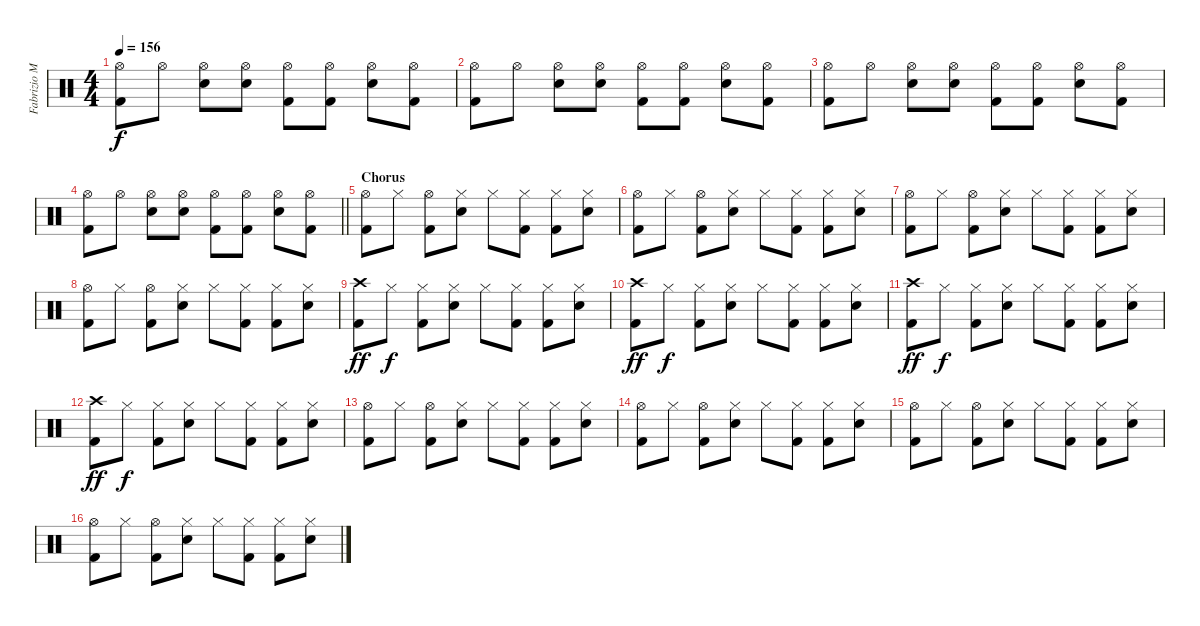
\track ("Fabrizio Moretti" "Fabrizio M") {instrument percussion}
\staff {score}
\articulation defaults
\ts (4 4)
\tempo 156
\clef neutral
\ks c
("Hi-Hat (open)" "Kick (hit) 2").8{dy f} "Hi-Hat (open)".8 ("Hi-Hat (open)" "Snare (hit) 2").8 ("Hi-Hat (open)" "Snare (hit) 2").8 ("Hi-Hat (open)" "Kick (hit) 2").8 ("Hi-Hat (open)" "Kick (hit) 2").8 ("Hi-Hat (open)" "Snare (hit) 2").8 ("Hi-Hat (open)" "Kick (hit) 2").8 |
("Hi-Hat (open)" "Kick (hit) 2").8 "Hi-Hat (open)".8 ("Hi-Hat (open)" "Snare (hit) 2").8 ("Hi-Hat (open)" "Snare (hit) 2").8 ("Hi-Hat (open)" "Kick (hit) 2").8 ("Hi-Hat (open)" "Kick (hit) 2").8 ("Hi-Hat (open)" "Snare (hit) 2").8 ("Hi-Hat (open)" "Kick (hit) 2").8 |
("Hi-Hat (open)" "Kick (hit) 2").8 "Hi-Hat (open)".8 ("Hi-Hat (open)" "Snare (hit) 2").8 ("Hi-Hat (open)" "Snare (hit) 2").8 ("Hi-Hat (open)" "Kick (hit) 2").8 ("Hi-Hat (open)" "Kick (hit) 2").8 ("Hi-Hat (open)" "Snare (hit) 2").8 ("Hi-Hat (open)" "Kick (hit) 2").8 |
\barLineRight lightlight
("Hi-Hat (open)" "Kick (hit) 2").8 "Hi-Hat (open)".8 ("Hi-Hat (open)" "Snare (hit) 2").8 ("Hi-Hat (open)" "Snare (hit) 2").8 ("Hi-Hat (open)" "Kick (hit) 2").8 ("Hi-Hat (open)" "Kick (hit) 2").8 ("Hi-Hat (open)" "Snare (hit) 2").8 ("Hi-Hat (open)" "Kick (hit) 2").8 |
\section ("" "Chorus")
("Hi-Hat (open)" "Kick (hit) 2").8 "Hi-Hat (closed)".8 ("Hi-Hat (open)" "Kick (hit) 2").8 ("Hi-Hat (closed)" "Snare (hit) 2").8 "Hi-Hat (closed)".8 ("Hi-Hat (closed)" "Kick (hit) 2").8 ("Hi-Hat (closed)" "Kick (hit) 2").8 ("Hi-Hat (closed)" "Snare (hit) 2").8 |
("Hi-Hat (open)" "Kick (hit) 2").8 "Hi-Hat (closed)".8 ("Hi-Hat (open)" "Kick (hit) 2").8 ("Hi-Hat (closed)" "Snare (hit) 2").8 "Hi-Hat (closed)".8 ("Hi-Hat (closed)" "Kick (hit) 2").8 ("Hi-Hat (closed)" "Kick (hit) 2").8 ("Hi-Hat (closed)" "Snare (hit) 2").8 |
("Hi-Hat (open)" "Kick (hit) 2").8 "Hi-Hat (closed)".8 ("Hi-Hat (open)" "Kick (hit) 2").8 ("Hi-Hat (closed)" "Snare (hit) 2").8 "Hi-Hat (closed)".8 ("Hi-Hat (closed)" "Kick (hit) 2").8 ("Hi-Hat (closed)" "Kick (hit) 2").8 ("Hi-Hat (closed)" "Snare (hit) 2").8 |
("Hi-Hat (open)" "Kick (hit) 2").8 "Hi-Hat (closed)".8 ("Hi-Hat (open)" "Kick (hit) 2").8 ("Hi-Hat (closed)" "Snare (hit) 2").8 "Hi-Hat (closed)".8 ("Hi-Hat (closed)" "Kick (hit) 2").8 ("Hi-Hat (closed)" "Kick (hit) 2").8 ("Hi-Hat (closed)" "Snare (hit) 2").8 |
("Crash high (hit)" "Kick (hit) 2").8{dy ff} "Hi-Hat (closed)".8{dy f} ("Hi-Hat (closed)" "Kick (hit) 2").8 ("Hi-Hat (closed)" "Snare (hit) 2").8 "Hi-Hat (closed)".8 ("Hi-Hat (closed)" "Kick (hit) 2").8 ("Hi-Hat (closed)" "Kick (hit) 2").8 ("Hi-Hat (closed)" "Snare (hit) 2").8 |
("Crash high (hit)" "Kick (hit) 2").8{dy ff} "Hi-Hat (closed)".8{dy f} ("Hi-Hat (closed)" "Kick (hit) 2").8 ("Hi-Hat (closed)" "Snare (hit) 2").8 "Hi-Hat (closed)".8 ("Hi-Hat (closed)" "Kick (hit) 2").8 ("Hi-Hat (closed)" "Kick (hit) 2").8 ("Hi-Hat (closed)" "Snare (hit) 2").8 |
("Crash high (hit)" "Kick (hit) 2").8{dy ff} "Hi-Hat (closed)".8{dy f} ("Hi-Hat (closed)" "Kick (hit) 2").8 ("Hi-Hat (closed)" "Snare (hit) 2").8 "Hi-Hat (closed)".8 ("Hi-Hat (closed)" "Kick (hit) 2").8 ("Hi-Hat (closed)" "Kick (hit) 2").8 ("Hi-Hat (closed)" "Snare (hit) 2").8 |
("Crash high (hit)" "Kick (hit) 2").8{dy ff} "Hi-Hat (closed)".8{dy f} ("Hi-Hat (closed)" "Kick (hit) 2").8 ("Hi-Hat (closed)" "Snare (hit) 2").8 "Hi-Hat (closed)".8 ("Hi-Hat (closed)" "Kick (hit) 2").8 ("Hi-Hat (closed)" "Kick (hit) 2").8 ("Hi-Hat (closed)" "Snare (hit) 2").8 |
("Hi-Hat (open)" "Kick (hit) 2").8 "Hi-Hat (closed)".8 ("Hi-Hat (open)" "Kick (hit) 2").8 ("Hi-Hat (closed)" "Snare (hit) 2").8 "Hi-Hat (closed)".8 ("Hi-Hat (closed)" "Kick (hit) 2").8 ("Hi-Hat (closed)" "Kick (hit) 2").8 ("Hi-Hat (closed)" "Snare (hit) 2").8 |
("Hi-Hat (open)" "Kick (hit) 2").8 "Hi-Hat (closed)".8 ("Hi-Hat (open)" "Kick (hit) 2").8 ("Hi-Hat (closed)" "Snare (hit) 2").8 "Hi-Hat (closed)".8 ("Hi-Hat (closed)" "Kick (hit) 2").8 ("Hi-Hat (closed)" "Kick (hit) 2").8 ("Hi-Hat (closed)" "Snare (hit) 2").8 |
("Hi-Hat (open)" "Kick (hit) 2").8 "Hi-Hat (closed)".8 ("Hi-Hat (open)" "Kick (hit) 2").8 ("Hi-Hat (closed)" "Snare (hit) 2").8 "Hi-Hat (closed)".8 ("Hi-Hat (closed)" "Kick (hit) 2").8 ("Hi-Hat (closed)" "Kick (hit) 2").8 ("Hi-Hat (closed)" "Snare (hit) 2").8 |
("Hi-Hat (open)" "Kick (hit) 2").8 "Hi-Hat (closed)".8 ("Hi-Hat (open)" "Kick (hit) 2").8 ("Hi-Hat (closed)" "Snare (hit) 2").8 "Hi-Hat (closed)".8 ("Hi-Hat (closed)" "Kick (hit) 2").8 ("Hi-Hat (closed)" "Kick (hit) 2").8 ("Hi-Hat (closed)" "Snare (hit) 2").8
